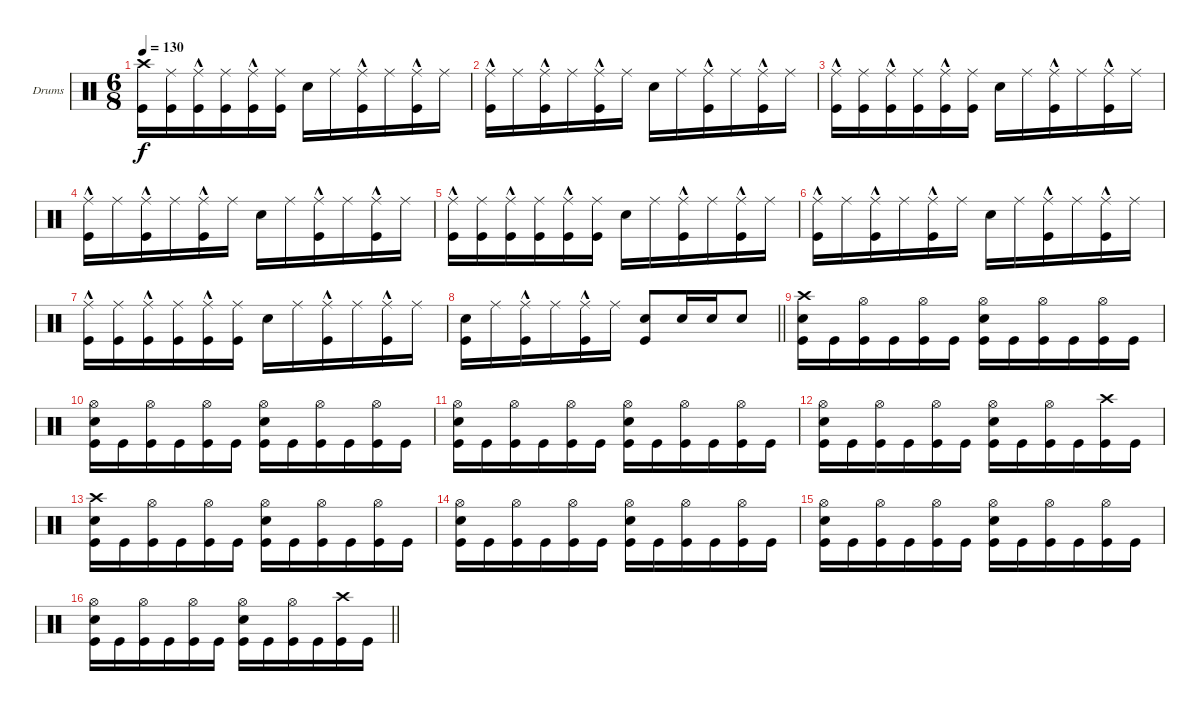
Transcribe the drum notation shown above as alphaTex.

\bracketExtendMode groupsimilarinstruments
\firstSystemTrackNameOrientation horizontal
\otherSystemsTrackNameOrientation horizontal
\track ("drums (Anton Zulganov)" "Drums") {instrument percussion}
\staff {score}
\articulation defaults
\ts (6 8)
\tempo 130
\clef neutral
\ks aminor
("Kick (hit)" "Crash high (hit)").16{dy f} ("Kick (hit)" "Ride (middle)").16 ("Kick (hit)" "Ride (middle)"{hac}).16 ("Kick (hit)" "Ride (middle)").16 ("Kick (hit)" "Ride (middle)"{hac}).16 ("Kick (hit)" "Ride (middle)").16 "Snare (hit) 2".16 "Ride (middle)".16 ("Kick (hit)" "Ride (middle)"{hac}).16 "Ride (middle)".16 ("Kick (hit)" "Ride (middle)"{hac}).16 "Ride (middle)".16 |
("Kick (hit)" "Ride (middle)"{hac}).16 "Ride (middle)".16 ("Kick (hit)" "Ride (middle)"{hac}).16 "Ride (middle)".16 ("Kick (hit)" "Ride (middle)"{hac}).16 "Ride (middle)".16 "Snare (hit) 2".16 "Ride (middle)".16 ("Kick (hit)" "Ride (middle)"{hac}).16 "Ride (middle)".16 ("Kick (hit)" "Ride (middle)"{hac}).16 "Ride (middle)".16 |
("Kick (hit)" "Ride (middle)"{hac}).16 ("Kick (hit)" "Ride (middle)").16 ("Kick (hit)" "Ride (middle)"{hac}).16 ("Kick (hit)" "Ride (middle)").16 ("Kick (hit)" "Ride (middle)"{hac}).16 ("Kick (hit)" "Ride (middle)").16 "Snare (hit) 2".16 "Ride (middle)".16 ("Kick (hit)" "Ride (middle)"{hac}).16 "Ride (middle)".16 ("Kick (hit)" "Ride (middle)"{hac}).16 "Ride (middle)".16 |
("Kick (hit)" "Ride (middle)"{hac}).16 "Ride (middle)".16 ("Kick (hit)" "Ride (middle)"{hac}).16 "Ride (middle)".16 ("Kick (hit)" "Ride (middle)"{hac}).16 "Ride (middle)".16 "Snare (hit) 2".16 "Ride (middle)".16 ("Kick (hit)" "Ride (middle)"{hac}).16 "Ride (middle)".16 ("Kick (hit)" "Ride (middle)"{hac}).16 "Ride (middle)".16 |
("Kick (hit)" "Ride (middle)"{hac}).16 ("Kick (hit)" "Ride (middle)").16 ("Kick (hit)" "Ride (middle)"{hac}).16 ("Kick (hit)" "Ride (middle)").16 ("Kick (hit)" "Ride (middle)"{hac}).16 ("Kick (hit)" "Ride (middle)").16 "Snare (hit) 2".16 "Ride (middle)".16 ("Kick (hit)" "Ride (middle)"{hac}).16 "Ride (middle)".16 ("Kick (hit)" "Ride (middle)"{hac}).16 "Ride (middle)".16 |
("Kick (hit)" "Ride (middle)"{hac}).16 "Ride (middle)".16 ("Kick (hit)" "Ride (middle)"{hac}).16 "Ride (middle)".16 ("Kick (hit)" "Ride (middle)"{hac}).16 "Ride (middle)".16 "Snare (hit) 2".16 "Ride (middle)".16 ("Kick (hit)" "Ride (middle)"{hac}).16 "Ride (middle)".16 ("Kick (hit)" "Ride (middle)"{hac}).16 "Ride (middle)".16 |
("Kick (hit)" "Ride (middle)"{hac}).16 ("Kick (hit)" "Ride (middle)").16 ("Kick (hit)" "Ride (middle)"{hac}).16 ("Kick (hit)" "Ride (middle)").16 ("Kick (hit)" "Ride (middle)"{hac}).16 ("Kick (hit)" "Ride (middle)").16 "Snare (hit) 2".16 "Ride (middle)".16 ("Kick (hit)" "Ride (middle)"{hac}).16 "Ride (middle)".16 ("Kick (hit)" "Ride (middle)"{hac}).16 "Ride (middle)".16 |
\barLineRight lightlight
("Kick (hit)" "Snare (hit) 2").16 "Ride (middle)".16 ("Kick (hit)" "Ride (middle)"{hac}).16 "Ride (middle)".16 ("Kick (hit)" "Ride (middle)"{hac}).16 "Ride (middle)".16 ("Snare (hit) 2" "Kick (hit)").8 "Snare (hit) 2".16 "Snare (hit) 2".16 "Snare (hit) 2".8 |
("Snare (hit) 2" "Kick (hit)" "Crash high (hit)").16 "Kick (hit)".16 ("Hi-Hat (open)" "Kick (hit)").16 "Kick (hit)".16 ("Hi-Hat (open)" "Kick (hit)").16 "Kick (hit)".16 ("Hi-Hat (open)" "Kick (hit)" "Snare (hit) 2").16 "Kick (hit)".16 ("Hi-Hat (open)" "Kick (hit)").16 "Kick (hit)".16 ("Kick (hit)" "Hi-Hat (open)").16 "Kick (hit)".16 |
("Snare (hit) 2" "Kick (hit)" "Hi-Hat (open)").16 "Kick (hit)".16 ("Hi-Hat (open)" "Kick (hit)").16 "Kick (hit)".16 ("Hi-Hat (open)" "Kick (hit)").16 "Kick (hit)".16 ("Hi-Hat (open)" "Kick (hit)" "Snare (hit) 2").16 "Kick (hit)".16 ("Hi-Hat (open)" "Kick (hit)").16 "Kick (hit)".16 ("Kick (hit)" "Hi-Hat (open)").16 "Kick (hit)".16 |
("Snare (hit) 2" "Kick (hit)" "Hi-Hat (open)").16 "Kick (hit)".16 ("Hi-Hat (open)" "Kick (hit)").16 "Kick (hit)".16 ("Hi-Hat (open)" "Kick (hit)").16 "Kick (hit)".16 ("Hi-Hat (open)" "Kick (hit)" "Snare (hit) 2").16 "Kick (hit)".16 ("Hi-Hat (open)" "Kick (hit)").16 "Kick (hit)".16 ("Kick (hit)" "Hi-Hat (open)").16 "Kick (hit)".16 |
("Snare (hit) 2" "Kick (hit)" "Hi-Hat (open)").16 "Kick (hit)".16 ("Hi-Hat (open)" "Kick (hit)").16 "Kick (hit)".16 ("Hi-Hat (open)" "Kick (hit)").16 "Kick (hit)".16 ("Hi-Hat (open)" "Kick (hit)" "Snare (hit) 2").16 "Kick (hit)".16 ("Hi-Hat (open)" "Kick (hit)").16 "Kick (hit)".16 ("Kick (hit)" "Crash high (hit)").16 "Kick (hit)".16 |
("Snare (hit) 2" "Kick (hit)" "Crash high (hit)").16 "Kick (hit)".16 ("Hi-Hat (open)" "Kick (hit)").16 "Kick (hit)".16 ("Hi-Hat (open)" "Kick (hit)").16 "Kick (hit)".16 ("Hi-Hat (open)" "Kick (hit)" "Snare (hit) 2").16 "Kick (hit)".16 ("Hi-Hat (open)" "Kick (hit)").16 "Kick (hit)".16 ("Kick (hit)" "Hi-Hat (open)").16 "Kick (hit)".16 |
("Snare (hit) 2" "Kick (hit)" "Hi-Hat (open)").16 "Kick (hit)".16 ("Hi-Hat (open)" "Kick (hit)").16 "Kick (hit)".16 ("Hi-Hat (open)" "Kick (hit)").16 "Kick (hit)".16 ("Hi-Hat (open)" "Kick (hit)" "Snare (hit) 2").16 "Kick (hit)".16 ("Hi-Hat (open)" "Kick (hit)").16 "Kick (hit)".16 ("Kick (hit)" "Hi-Hat (open)").16 "Kick (hit)".16 |
("Snare (hit) 2" "Kick (hit)" "Hi-Hat (open)").16 "Kick (hit)".16 ("Hi-Hat (open)" "Kick (hit)").16 "Kick (hit)".16 ("Hi-Hat (open)" "Kick (hit)").16 "Kick (hit)".16 ("Hi-Hat (open)" "Kick (hit)" "Snare (hit) 2").16 "Kick (hit)".16 ("Hi-Hat (open)" "Kick (hit)").16 "Kick (hit)".16 ("Kick (hit)" "Hi-Hat (open)").16 "Kick (hit)".16 |
\barLineRight lightlight
("Snare (hit) 2" "Kick (hit)" "Hi-Hat (open)").16 "Kick (hit)".16 ("Hi-Hat (open)" "Kick (hit)").16 "Kick (hit)".16 ("Hi-Hat (open)" "Kick (hit)").16 "Kick (hit)".16 ("Hi-Hat (open)" "Kick (hit)" "Snare (hit) 2").16 "Kick (hit)".16 ("Hi-Hat (open)" "Kick (hit)").16 "Kick (hit)".16 ("Kick (hit)" "Crash high (hit)").16 "Kick (hit)".16
